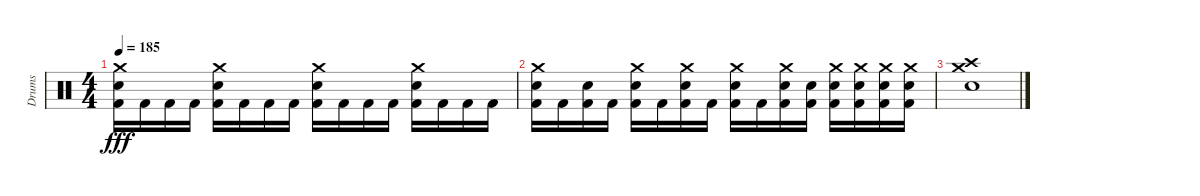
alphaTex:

\track ("Drums" "Drums") {instrument percussion}
\staff {score}
\articulation defaults
\ts (4 4)
\tempo 185
\clef neutral
\ks c
("Crash medium (hit)" "Electric Snare (hit)" "Kick (hit) 2").16{dy fff} "Kick (hit) 2".16 "Kick (hit) 2".16 "Kick (hit) 2".16 ("Crash medium (hit)" "Electric Snare (hit)" "Kick (hit) 2").16 "Kick (hit) 2".16 "Kick (hit) 2".16 "Kick (hit) 2".16 ("Crash medium (hit)" "Electric Snare (hit)" "Kick (hit) 2").16 "Kick (hit) 2".16 "Kick (hit) 2".16 "Kick (hit) 2".16 ("Crash medium (hit)" "Electric Snare (hit)" "Kick (hit) 2").16 "Kick (hit) 2".16 "Kick (hit) 2".16 "Kick (hit) 2".16 |
("Crash medium (hit)" "Electric Snare (hit)" "Kick (hit) 2").16 "Kick (hit) 2".16 ("Electric Snare (hit)" "Kick (hit) 2").16 "Kick (hit) 2".16 ("Crash medium (hit)" "Electric Snare (hit)" "Kick (hit) 2").16 "Kick (hit) 2".16 ("Crash medium (hit)" "Electric Snare (hit)" "Kick (hit) 2").16 "Kick (hit) 2".16 ("Crash medium (hit)" "Electric Snare (hit)" "Kick (hit) 2").16 "Kick (hit) 2".16 ("Crash medium (hit)" "Electric Snare (hit)" "Kick (hit) 2").16 ("Electric Snare (hit)" "Kick (hit) 2").16 ("Crash medium (hit)" "Electric Snare (hit)" "Kick (hit) 2").16 ("Crash medium (hit)" "Electric Snare (hit)" "Kick (hit) 2").16 ("Crash medium (hit)" "Electric Snare (hit)" "Kick (hit) 2").16 ("Crash medium (hit)" "Electric Snare (hit)" "Kick (hit) 2").16 |
("Electric Snare (hit)" "Crash medium (hit)" "Crash high (hit)").1
